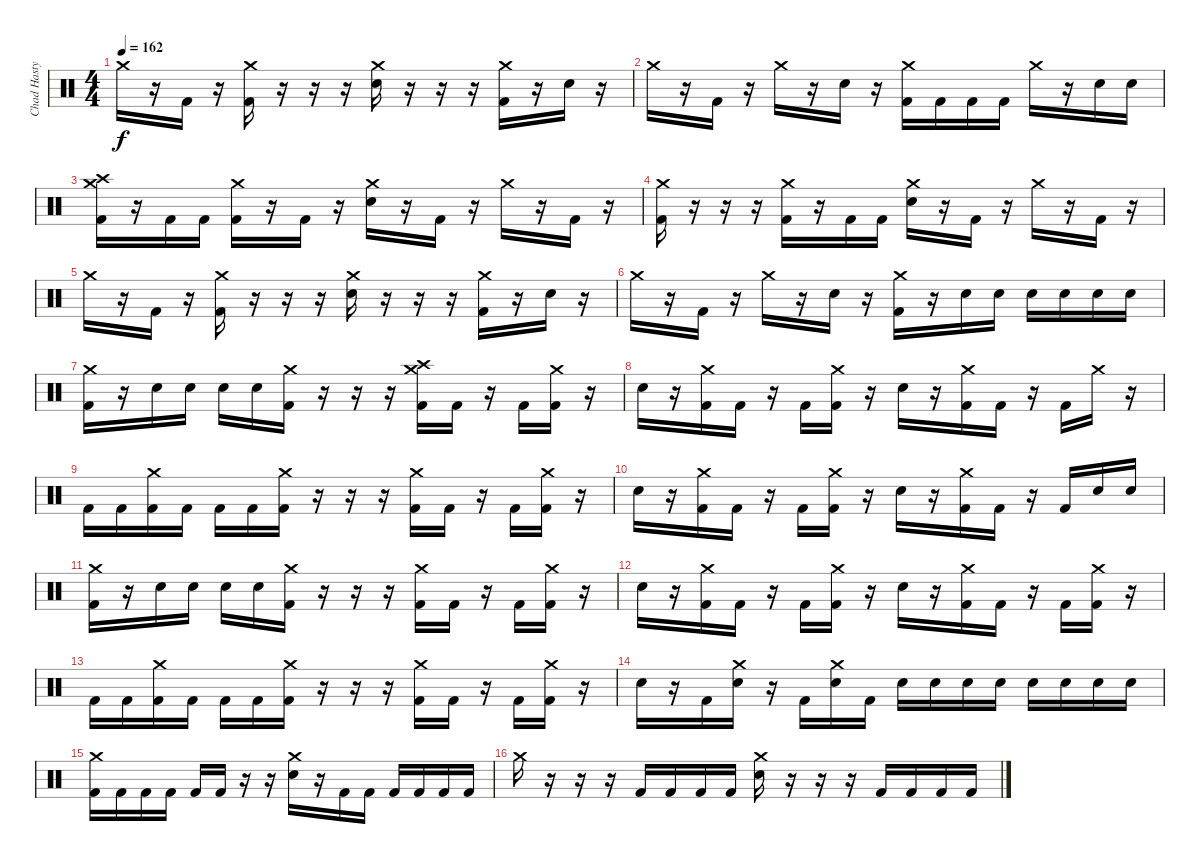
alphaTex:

\track ("Chad Hasty" "Chad Hasty") {instrument percussion}
\staff {score}
\articulation defaults
\ts (4 4)
\tempo 162
\clef neutral
\ks c "Crash medium (hit)".16{dy f}
r.16 "Kick (hit) 2".16 r.16 ("Crash medium (hit)" "Kick (hit) 2").16 r.16 r.16 r.16 ("Crash medium (hit)" "Snare (hit) 2").16 r.16 r.16 r.16 ("Crash medium (hit)" "Kick (hit) 2").16 r.16 "Snare (hit) 2".16 r.16 |
"Crash medium (hit)".16 r.16 "Kick (hit) 2".16 r.16 "Crash medium (hit)".16 r.16 "Snare (hit) 2".16 r.16 ("Crash medium (hit)" "Kick (hit) 2").16 "Kick (hit) 2".16 "Kick (hit) 2".16 "Kick (hit) 2".16 "Crash medium (hit)".16 r.16 "Snare (hit) 2".16 "Snare (hit) 2".16 |
("Crash medium (hit)" "Crash high (hit)" "Kick (hit) 2").16 r.16 "Kick (hit) 2".16 "Kick (hit) 2".16 ("Crash medium (hit)" "Kick (hit) 2").16 r.16 "Kick (hit) 2".16 r.16 ("Crash medium (hit)" "Snare (hit) 2").16 r.16 "Kick (hit) 2".16 r.16 "Crash medium (hit)".16 r.16 "Kick (hit) 2".16 r.16 |
("Crash medium (hit)" "Kick (hit) 2").16 r.16 r.16 r.16 ("Crash medium (hit)" "Kick (hit) 2").16 r.16 "Kick (hit) 2".16 "Kick (hit) 2".16 ("Crash medium (hit)" "Snare (hit) 2").16 r.16 "Kick (hit) 2".16 r.16 "Crash medium (hit)".16 r.16 "Kick (hit) 2".16 r.16 |
"Crash medium (hit)".16 r.16 "Kick (hit) 2".16 r.16 ("Crash medium (hit)" "Kick (hit) 2").16 r.16 r.16 r.16 ("Crash medium (hit)" "Snare (hit) 2").16 r.16 r.16 r.16 ("Crash medium (hit)" "Kick (hit) 2").16 r.16 "Snare (hit) 2".16 r.16 |
"Crash medium (hit)".16 r.16 "Kick (hit) 2".16 r.16 "Crash medium (hit)".16 r.16 "Snare (hit) 2".16 r.16 ("Crash medium (hit)" "Kick (hit) 2").16 r.16 "Snare (hit) 2".16 "Snare (hit) 2".16 "Snare (hit) 2".16 "Snare (hit) 2".16 "Snare (hit) 2".16 "Snare (hit) 2".16 |
("Crash medium (hit)" "Kick (hit) 2").16 r.16 "Snare (hit) 2".16 "Snare (hit) 2".16 "Snare (hit) 2".16 "Snare (hit) 2".16 ("Crash medium (hit)" "Kick (hit) 2").16 r.16 r.16 r.16 ("Crash medium (hit)" "Crash high (hit)" "Kick (hit) 2").16 "Kick (hit) 2".16 r.16 "Kick (hit) 2".16 ("Crash medium (hit)" "Kick (hit) 2").16 r.16 |
"Snare (hit) 2".16 r.16 ("Crash medium (hit)" "Kick (hit) 2").16 "Kick (hit) 2".16 r.16 "Kick (hit) 2".16 ("Crash medium (hit)" "Kick (hit) 2").16 r.16 "Snare (hit) 2".16 r.16 ("Crash medium (hit)" "Kick (hit) 2").16 "Kick (hit) 2".16 r.16 "Kick (hit) 2".16 "Crash medium (hit)".16 r.16 |
"Kick (hit) 2".16 "Kick (hit) 2".16 ("Crash medium (hit)" "Kick (hit) 2").16 "Kick (hit) 2".16 "Kick (hit) 2".16 "Kick (hit) 2".16 ("Crash medium (hit)" "Kick (hit) 2").16 r.16 r.16 r.16 ("Crash medium (hit)" "Kick (hit) 2").16 "Kick (hit) 2".16 r.16 "Kick (hit) 2".16 ("Crash medium (hit)" "Kick (hit) 2").16 r.16 |
"Snare (hit) 2".16 r.16 ("Crash medium (hit)" "Kick (hit) 2").16 "Kick (hit) 2".16 r.16 "Kick (hit) 2".16 ("Crash medium (hit)" "Kick (hit) 2").16 r.16 "Snare (hit) 2".16 r.16 ("Crash medium (hit)" "Kick (hit) 2").16 "Kick (hit) 2".16 r.16 "Kick (hit) 2".16 "Snare (hit) 2".16 "Snare (hit) 2".16 |
("Crash medium (hit)" "Kick (hit) 2").16 r.16 "Snare (hit) 2".16 "Snare (hit) 2".16 "Snare (hit) 2".16 "Snare (hit) 2".16 ("Crash medium (hit)" "Kick (hit) 2").16 r.16 r.16 r.16 ("Crash medium (hit)" "Kick (hit) 2").16 "Kick (hit) 2".16 r.16 "Kick (hit) 2".16 ("Crash medium (hit)" "Kick (hit) 2").16 r.16 |
"Snare (hit) 2".16 r.16 ("Crash medium (hit)" "Kick (hit) 2").16 "Kick (hit) 2".16 r.16 "Kick (hit) 2".16 ("Crash medium (hit)" "Kick (hit) 2").16 r.16 "Snare (hit) 2".16 r.16 ("Crash medium (hit)" "Kick (hit) 2").16 "Kick (hit) 2".16 r.16 "Kick (hit) 2".16 ("Crash medium (hit)" "Kick (hit) 2").16 r.16 |
"Kick (hit) 2".16 "Kick (hit) 2".16 ("Crash medium (hit)" "Kick (hit) 2").16 "Kick (hit) 2".16 "Kick (hit) 2".16 "Kick (hit) 2".16 ("Crash medium (hit)" "Kick (hit) 2").16 r.16 r.16 r.16 ("Crash medium (hit)" "Kick (hit) 2").16 "Kick (hit) 2".16 r.16 "Kick (hit) 2".16 ("Crash medium (hit)" "Kick (hit) 2").16 r.16 |
"Snare (hit) 2".16 r.16 "Kick (hit) 2".16 ("Crash medium (hit)" "Snare (hit) 2").16 r.16 "Kick (hit) 2".16 ("Crash medium (hit)" "Snare (hit) 2").16 "Kick (hit) 2".16 "Snare (hit) 2".16 "Snare (hit) 2".16 "Snare (hit) 2".16 "Snare (hit) 2".16 "Snare (hit) 2".16 "Snare (hit) 2".16 "Snare (hit) 2".16 "Snare (hit) 2".16 |
("Crash medium (hit)" "Kick (hit) 2").16 "Kick (hit) 2".16 "Kick (hit) 2".16 "Kick (hit) 2".16 "Kick (hit) 2".16 "Kick (hit) 2".16 r.16 r.16 ("Crash medium (hit)" "Snare (hit) 2").16 r.16 "Kick (hit) 2".16 "Kick (hit) 2".16 "Kick (hit) 2".16 "Kick (hit) 2".16 "Kick (hit) 2".16 "Kick (hit) 2".16 |
"Crash medium (hit)".16 r.16 r.16 r.16 "Kick (hit) 2".16 "Kick (hit) 2".16 "Kick (hit) 2".16 "Kick (hit) 2".16 ("Crash medium (hit)" "Snare (hit) 2").16 r.16 r.16 r.16 "Kick (hit) 2".16 "Kick (hit) 2".16 "Kick (hit) 2".16 "Kick (hit) 2".16
